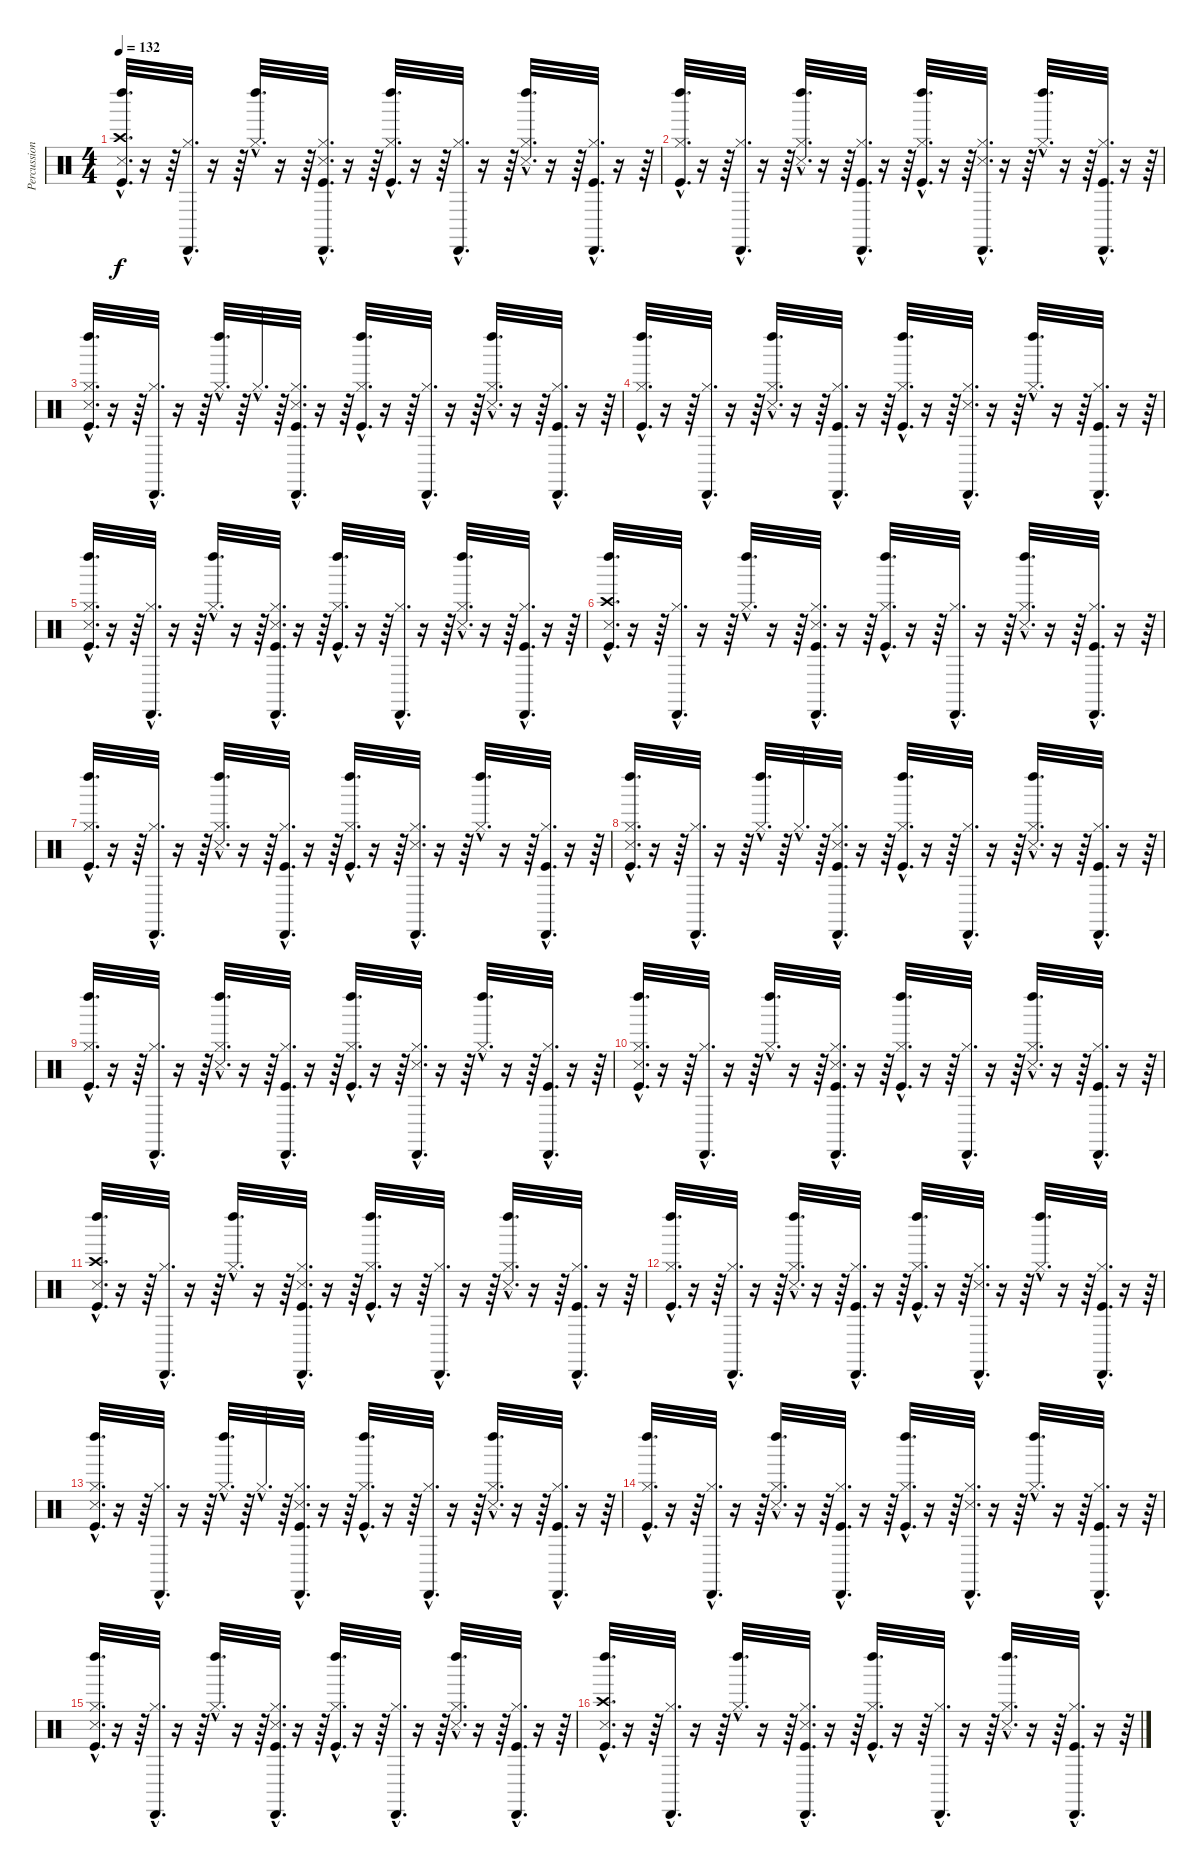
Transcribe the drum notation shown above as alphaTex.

\track ("Percussions" "Percussion") {instrument percussion}
\staff {score}
\articulation defaults
\ts (4 4)
\tempo 132
\clef neutral
\ks c
("Kick (hit)"{hac} "Snare (side stick) 3"{hac} "Crash high (hit)"{hac} "Left Maraca (hit)"{hac}).32{d dy f} r.16 r.64 ("Hi-Hat (closed)"{hac} "Cabasa (hit)"{hac}).32{d} r.16 r.64 ("Hi-Hat (closed)"{hac} "Left Maraca (hit)"{hac}).32{d} r.16 r.64 ("Kick (hit)"{hac} "Hi-Hat (closed)"{hac} "Snare (side stick) 3"{hac} "Cabasa (hit)"{hac}).32{d} r.16 r.64 ("Kick (hit)"{hac} "Hi-Hat (closed)"{hac} "Left Maraca (hit)"{hac}).32{d} r.16 r.64 ("Hi-Hat (closed)"{hac} "Cabasa (hit)"{hac}).32{d} r.16 r.64 ("Hi-Hat (closed)"{hac} "Snare (side stick) 3"{hac} "Left Maraca (hit)"{hac}).32{d} r.16 r.64 ("Kick (hit)"{hac} "Hi-Hat (closed)"{hac} "Cabasa (hit)"{hac}).32{d} r.16 r.64 |
("Kick (hit)"{hac} "Hi-Hat (closed)"{hac} "Left Maraca (hit)"{hac}).32{d} r.16 r.64 ("Hi-Hat (closed)"{hac} "Cabasa (hit)"{hac}).32{d} r.16 r.64 ("Hi-Hat (closed)"{hac} "Snare (side stick) 3"{hac} "Left Maraca (hit)"{hac}).32{d} r.16 r.64 ("Kick (hit)"{hac} "Hi-Hat (closed)"{hac} "Cabasa (hit)"{hac}).32{d} r.16 r.64 ("Kick (hit)"{hac} "Hi-Hat (closed)"{hac} "Left Maraca (hit)"{hac}).32{d} r.16 r.64 ("Hi-Hat (closed)"{hac} "Snare (side stick) 3"{hac} "Cabasa (hit)"{hac}).32{d} r.16 r.64 ("Hi-Hat (closed)"{hac} "Left Maraca (hit)"{hac}).32{d} r.16 r.64 ("Kick (hit)"{hac} "Hi-Hat (closed)"{hac} "Cabasa (hit)"{hac}).32{d} r.16 r.64 |
("Kick (hit)"{hac} "Hi-Hat (closed)"{hac} "Snare (side stick) 3"{hac} "Left Maraca (hit)"{hac}).32{d} r.16 r.64 ("Hi-Hat (closed)"{hac} "Cabasa (hit)"{hac}).32{d} r.16 r.64 ("Hi-Hat (closed)"{hac} "Left Maraca (hit)"{hac}).32{d} r.64 "Hi-Hat (closed)"{hac}.32{d} r.64 ("Kick (hit)"{hac} "Hi-Hat (closed)"{hac} "Snare (side stick) 3"{hac} "Cabasa (hit)"{hac}).32{d} r.16 r.64 ("Kick (hit)"{hac} "Hi-Hat (closed)"{hac} "Left Maraca (hit)"{hac}).32{d} r.16 r.64 ("Hi-Hat (closed)"{hac} "Cabasa (hit)"{hac}).32{d} r.16 r.64 ("Hi-Hat (closed)"{hac} "Snare (side stick) 3"{hac} "Left Maraca (hit)"{hac}).32{d} r.16 r.64 ("Kick (hit)"{hac} "Hi-Hat (closed)"{hac} "Cabasa (hit)"{hac}).32{d} r.16 r.64 |
("Kick (hit)"{hac} "Hi-Hat (closed)"{hac} "Left Maraca (hit)"{hac}).32{d} r.16 r.64 ("Hi-Hat (closed)"{hac} "Cabasa (hit)"{hac}).32{d} r.16 r.64 ("Hi-Hat (closed)"{hac} "Snare (side stick) 3"{hac} "Left Maraca (hit)"{hac}).32{d} r.16 r.64 ("Kick (hit)"{hac} "Hi-Hat (closed)"{hac} "Cabasa (hit)"{hac}).32{d} r.16 r.64 ("Kick (hit)"{hac} "Hi-Hat (closed)"{hac} "Left Maraca (hit)"{hac}).32{d} r.16 r.64 ("Hi-Hat (closed)"{hac} "Snare (side stick) 3"{hac} "Cabasa (hit)"{hac}).32{d} r.16 r.64 ("Hi-Hat (closed)"{hac} "Left Maraca (hit)"{hac}).32{d} r.16 r.64 ("Kick (hit)"{hac} "Hi-Hat (closed)"{hac} "Cabasa (hit)"{hac}).32{d} r.16 r.64 |
("Kick (hit)"{hac} "Hi-Hat (closed)"{hac} "Snare (side stick) 3"{hac} "Left Maraca (hit)"{hac}).32{d} r.16 r.64 ("Hi-Hat (closed)"{hac} "Cabasa (hit)"{hac}).32{d} r.16 r.64 ("Hi-Hat (closed)"{hac} "Left Maraca (hit)"{hac}).32{d} r.16 r.64 ("Kick (hit)"{hac} "Hi-Hat (closed)"{hac} "Snare (side stick) 3"{hac} "Cabasa (hit)"{hac}).32{d} r.16 r.64 ("Kick (hit)"{hac} "Hi-Hat (closed)"{hac} "Left Maraca (hit)"{hac}).32{d} r.16 r.64 ("Hi-Hat (closed)"{hac} "Cabasa (hit)"{hac}).32{d} r.16 r.64 ("Hi-Hat (closed)"{hac} "Snare (side stick) 3"{hac} "Left Maraca (hit)"{hac}).32{d} r.16 r.64 ("Kick (hit)"{hac} "Hi-Hat (closed)"{hac} "Cabasa (hit)"{hac}).32{d} r.16 r.64 |
("Kick (hit)"{hac} "Snare (side stick) 3"{hac} "Crash high (hit)"{hac} "Left Maraca (hit)"{hac}).32{d} r.16 r.64 ("Hi-Hat (closed)"{hac} "Cabasa (hit)"{hac}).32{d} r.16 r.64 ("Hi-Hat (closed)"{hac} "Left Maraca (hit)"{hac}).32{d} r.16 r.64 ("Kick (hit)"{hac} "Hi-Hat (closed)"{hac} "Snare (side stick) 3"{hac} "Cabasa (hit)"{hac}).32{d} r.16 r.64 ("Kick (hit)"{hac} "Hi-Hat (closed)"{hac} "Left Maraca (hit)"{hac}).32{d} r.16 r.64 ("Hi-Hat (closed)"{hac} "Cabasa (hit)"{hac}).32{d} r.16 r.64 ("Hi-Hat (closed)"{hac} "Snare (side stick) 3"{hac} "Left Maraca (hit)"{hac}).32{d} r.16 r.64 ("Kick (hit)"{hac} "Hi-Hat (closed)"{hac} "Cabasa (hit)"{hac}).32{d} r.16 r.64 |
("Kick (hit)"{hac} "Hi-Hat (closed)"{hac} "Left Maraca (hit)"{hac}).32{d} r.16 r.64 ("Hi-Hat (closed)"{hac} "Cabasa (hit)"{hac}).32{d} r.16 r.64 ("Hi-Hat (closed)"{hac} "Snare (side stick) 3"{hac} "Left Maraca (hit)"{hac}).32{d} r.16 r.64 ("Kick (hit)"{hac} "Hi-Hat (closed)"{hac} "Cabasa (hit)"{hac}).32{d} r.16 r.64 ("Kick (hit)"{hac} "Hi-Hat (closed)"{hac} "Left Maraca (hit)"{hac}).32{d} r.16 r.64 ("Hi-Hat (closed)"{hac} "Snare (side stick) 3"{hac} "Cabasa (hit)"{hac}).32{d} r.16 r.64 ("Hi-Hat (closed)"{hac} "Left Maraca (hit)"{hac}).32{d} r.16 r.64 ("Kick (hit)"{hac} "Hi-Hat (closed)"{hac} "Cabasa (hit)"{hac}).32{d} r.16 r.64 |
("Kick (hit)"{hac} "Hi-Hat (closed)"{hac} "Snare (side stick) 3"{hac} "Left Maraca (hit)"{hac}).32{d} r.16 r.64 ("Hi-Hat (closed)"{hac} "Cabasa (hit)"{hac}).32{d} r.16 r.64 ("Hi-Hat (closed)"{hac} "Left Maraca (hit)"{hac}).32{d} r.64 "Hi-Hat (closed)"{hac}.32{d} r.64 ("Kick (hit)"{hac} "Hi-Hat (closed)"{hac} "Snare (side stick) 3"{hac} "Cabasa (hit)"{hac}).32{d} r.16 r.64 ("Kick (hit)"{hac} "Hi-Hat (closed)"{hac} "Left Maraca (hit)"{hac}).32{d} r.16 r.64 ("Hi-Hat (closed)"{hac} "Cabasa (hit)"{hac}).32{d} r.16 r.64 ("Hi-Hat (closed)"{hac} "Snare (side stick) 3"{hac} "Left Maraca (hit)"{hac}).32{d} r.16 r.64 ("Kick (hit)"{hac} "Hi-Hat (closed)"{hac} "Cabasa (hit)"{hac}).32{d} r.16 r.64 |
("Kick (hit)"{hac} "Hi-Hat (closed)"{hac} "Left Maraca (hit)"{hac}).32{d} r.16 r.64 ("Hi-Hat (closed)"{hac} "Cabasa (hit)"{hac}).32{d} r.16 r.64 ("Hi-Hat (closed)"{hac} "Snare (side stick) 3"{hac} "Left Maraca (hit)"{hac}).32{d} r.16 r.64 ("Kick (hit)"{hac} "Hi-Hat (closed)"{hac} "Cabasa (hit)"{hac}).32{d} r.16 r.64 ("Kick (hit)"{hac} "Hi-Hat (closed)"{hac} "Left Maraca (hit)"{hac}).32{d} r.16 r.64 ("Hi-Hat (closed)"{hac} "Snare (side stick) 3"{hac} "Cabasa (hit)"{hac}).32{d} r.16 r.64 ("Hi-Hat (closed)"{hac} "Left Maraca (hit)"{hac}).32{d} r.16 r.64 ("Kick (hit)"{hac} "Hi-Hat (closed)"{hac} "Cabasa (hit)"{hac}).32{d} r.16 r.64 |
("Kick (hit)"{hac} "Hi-Hat (closed)"{hac} "Snare (side stick) 3"{hac} "Left Maraca (hit)"{hac}).32{d} r.16 r.64 ("Hi-Hat (closed)"{hac} "Cabasa (hit)"{hac}).32{d} r.16 r.64 ("Hi-Hat (closed)"{hac} "Left Maraca (hit)"{hac}).32{d} r.16 r.64 ("Kick (hit)"{hac} "Hi-Hat (closed)"{hac} "Snare (side stick) 3"{hac} "Cabasa (hit)"{hac}).32{d} r.16 r.64 ("Kick (hit)"{hac} "Hi-Hat (closed)"{hac} "Left Maraca (hit)"{hac}).32{d} r.16 r.64 ("Hi-Hat (closed)"{hac} "Cabasa (hit)"{hac}).32{d} r.16 r.64 ("Hi-Hat (closed)"{hac} "Snare (side stick) 3"{hac} "Left Maraca (hit)"{hac}).32{d} r.16 r.64 ("Kick (hit)"{hac} "Hi-Hat (closed)"{hac} "Cabasa (hit)"{hac}).32{d} r.16 r.64 |
("Kick (hit)"{hac} "Snare (side stick) 3"{hac} "Crash high (hit)"{hac} "Left Maraca (hit)"{hac}).32{d} r.16 r.64 ("Hi-Hat (closed)"{hac} "Cabasa (hit)"{hac}).32{d} r.16 r.64 ("Hi-Hat (closed)"{hac} "Left Maraca (hit)"{hac}).32{d} r.16 r.64 ("Kick (hit)"{hac} "Hi-Hat (closed)"{hac} "Snare (side stick) 3"{hac} "Cabasa (hit)"{hac}).32{d} r.16 r.64 ("Kick (hit)"{hac} "Hi-Hat (closed)"{hac} "Left Maraca (hit)"{hac}).32{d} r.16 r.64 ("Hi-Hat (closed)"{hac} "Cabasa (hit)"{hac}).32{d} r.16 r.64 ("Hi-Hat (closed)"{hac} "Snare (side stick) 3"{hac} "Left Maraca (hit)"{hac}).32{d} r.16 r.64 ("Kick (hit)"{hac} "Hi-Hat (closed)"{hac} "Cabasa (hit)"{hac}).32{d} r.16 r.64 |
("Kick (hit)"{hac} "Hi-Hat (closed)"{hac} "Left Maraca (hit)"{hac}).32{d} r.16 r.64 ("Hi-Hat (closed)"{hac} "Cabasa (hit)"{hac}).32{d} r.16 r.64 ("Hi-Hat (closed)"{hac} "Snare (side stick) 3"{hac} "Left Maraca (hit)"{hac}).32{d} r.16 r.64 ("Kick (hit)"{hac} "Hi-Hat (closed)"{hac} "Cabasa (hit)"{hac}).32{d} r.16 r.64 ("Kick (hit)"{hac} "Hi-Hat (closed)"{hac} "Left Maraca (hit)"{hac}).32{d} r.16 r.64 ("Hi-Hat (closed)"{hac} "Snare (side stick) 3"{hac} "Cabasa (hit)"{hac}).32{d} r.16 r.64 ("Hi-Hat (closed)"{hac} "Left Maraca (hit)"{hac}).32{d} r.16 r.64 ("Kick (hit)"{hac} "Hi-Hat (closed)"{hac} "Cabasa (hit)"{hac}).32{d} r.16 r.64 |
("Kick (hit)"{hac} "Hi-Hat (closed)"{hac} "Snare (side stick) 3"{hac} "Left Maraca (hit)"{hac}).32{d} r.16 r.64 ("Hi-Hat (closed)"{hac} "Cabasa (hit)"{hac}).32{d} r.16 r.64 ("Hi-Hat (closed)"{hac} "Left Maraca (hit)"{hac}).32{d} r.64 "Hi-Hat (closed)"{hac}.32{d} r.64 ("Kick (hit)"{hac} "Hi-Hat (closed)"{hac} "Snare (side stick) 3"{hac} "Cabasa (hit)"{hac}).32{d} r.16 r.64 ("Kick (hit)"{hac} "Hi-Hat (closed)"{hac} "Left Maraca (hit)"{hac}).32{d} r.16 r.64 ("Hi-Hat (closed)"{hac} "Cabasa (hit)"{hac}).32{d} r.16 r.64 ("Hi-Hat (closed)"{hac} "Snare (side stick) 3"{hac} "Left Maraca (hit)"{hac}).32{d} r.16 r.64 ("Kick (hit)"{hac} "Hi-Hat (closed)"{hac} "Cabasa (hit)"{hac}).32{d} r.16 r.64 |
("Kick (hit)"{hac} "Hi-Hat (closed)"{hac} "Left Maraca (hit)"{hac}).32{d} r.16 r.64 ("Hi-Hat (closed)"{hac} "Cabasa (hit)"{hac}).32{d} r.16 r.64 ("Hi-Hat (closed)"{hac} "Snare (side stick) 3"{hac} "Left Maraca (hit)"{hac}).32{d} r.16 r.64 ("Kick (hit)"{hac} "Hi-Hat (closed)"{hac} "Cabasa (hit)"{hac}).32{d} r.16 r.64 ("Kick (hit)"{hac} "Hi-Hat (closed)"{hac} "Left Maraca (hit)"{hac}).32{d} r.16 r.64 ("Hi-Hat (closed)"{hac} "Snare (side stick) 3"{hac} "Cabasa (hit)"{hac}).32{d} r.16 r.64 ("Hi-Hat (closed)"{hac} "Left Maraca (hit)"{hac}).32{d} r.16 r.64 ("Kick (hit)"{hac} "Hi-Hat (closed)"{hac} "Cabasa (hit)"{hac}).32{d} r.16 r.64 |
("Kick (hit)"{hac} "Hi-Hat (closed)"{hac} "Snare (side stick) 3"{hac} "Left Maraca (hit)"{hac}).32{d} r.16 r.64 ("Hi-Hat (closed)"{hac} "Cabasa (hit)"{hac}).32{d} r.16 r.64 ("Hi-Hat (closed)"{hac} "Left Maraca (hit)"{hac}).32{d} r.16 r.64 ("Kick (hit)"{hac} "Hi-Hat (closed)"{hac} "Snare (side stick) 3"{hac} "Cabasa (hit)"{hac}).32{d} r.16 r.64 ("Kick (hit)"{hac} "Hi-Hat (closed)"{hac} "Left Maraca (hit)"{hac}).32{d} r.16 r.64 ("Hi-Hat (closed)"{hac} "Cabasa (hit)"{hac}).32{d} r.16 r.64 ("Hi-Hat (closed)"{hac} "Snare (side stick) 3"{hac} "Left Maraca (hit)"{hac}).32{d} r.16 r.64 ("Kick (hit)"{hac} "Hi-Hat (closed)"{hac} "Cabasa (hit)"{hac}).32{d} r.16 r.64 |
("Kick (hit)"{hac} "Snare (side stick) 3"{hac} "Crash high (hit)"{hac} "Left Maraca (hit)"{hac}).32{d} r.16 r.64 ("Hi-Hat (closed)"{hac} "Cabasa (hit)"{hac}).32{d} r.16 r.64 ("Hi-Hat (closed)"{hac} "Left Maraca (hit)"{hac}).32{d} r.16 r.64 ("Kick (hit)"{hac} "Hi-Hat (closed)"{hac} "Snare (side stick) 3"{hac} "Cabasa (hit)"{hac}).32{d} r.16 r.64 ("Kick (hit)"{hac} "Hi-Hat (closed)"{hac} "Left Maraca (hit)"{hac}).32{d} r.16 r.64 ("Hi-Hat (closed)"{hac} "Cabasa (hit)"{hac}).32{d} r.16 r.64 ("Hi-Hat (closed)"{hac} "Snare (side stick) 3"{hac} "Left Maraca (hit)"{hac}).32{d} r.16 r.64 ("Kick (hit)"{hac} "Hi-Hat (closed)"{hac} "Cabasa (hit)"{hac}).32{d} r.16 r.64
